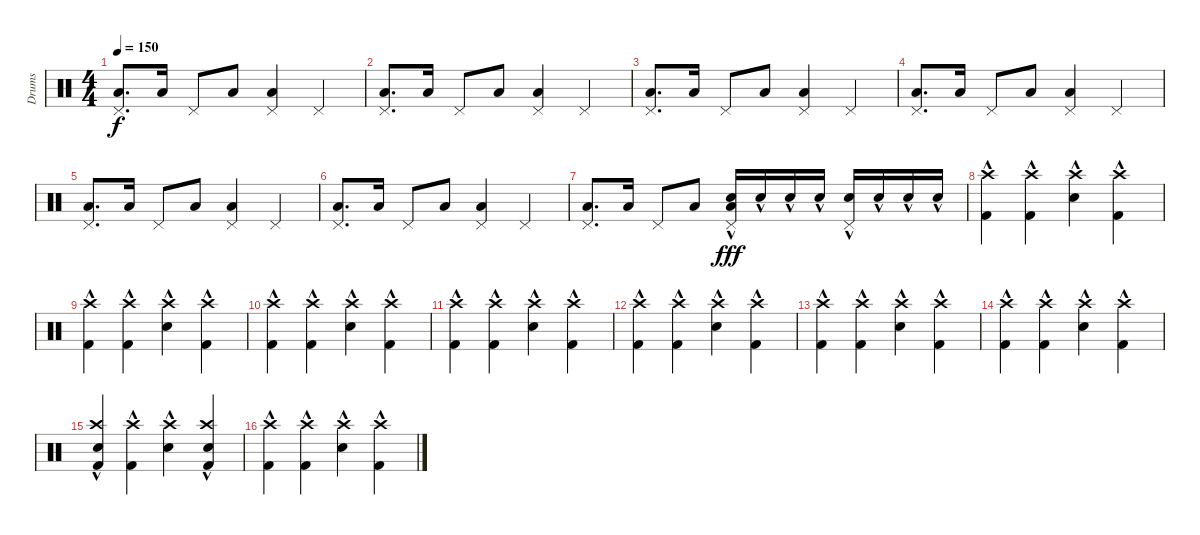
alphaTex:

\track ("Drums" "Drums") {instrument percussion}
\staff {score}
\articulation defaults
\ts (4 4)
\tempo 150
\clef neutral
\ks c
("Pedal Hi-Hat (hit)" "Low Floor Tom (hit)").8{d dy f} "Low Floor Tom (hit)".16 "Pedal Hi-Hat (hit)".8 "Low Floor Tom (hit)".8 ("Pedal Hi-Hat (hit)" "Low Floor Tom (hit)").4 "Pedal Hi-Hat (hit)".4 |
("Pedal Hi-Hat (hit)" "Low Floor Tom (hit)").8{d} "Low Floor Tom (hit)".16 "Pedal Hi-Hat (hit)".8 "Low Floor Tom (hit)".8 ("Pedal Hi-Hat (hit)" "Low Floor Tom (hit)").4 "Pedal Hi-Hat (hit)".4 |
("Pedal Hi-Hat (hit)" "Low Floor Tom (hit)").8{d} "Low Floor Tom (hit)".16 "Pedal Hi-Hat (hit)".8 "Low Floor Tom (hit)".8 ("Pedal Hi-Hat (hit)" "Low Floor Tom (hit)").4 "Pedal Hi-Hat (hit)".4 |
("Pedal Hi-Hat (hit)" "Low Floor Tom (hit)").8{d} "Low Floor Tom (hit)".16 "Pedal Hi-Hat (hit)".8 "Low Floor Tom (hit)".8 ("Pedal Hi-Hat (hit)" "Low Floor Tom (hit)").4 "Pedal Hi-Hat (hit)".4 |
("Pedal Hi-Hat (hit)" "Low Floor Tom (hit)").8{d} "Low Floor Tom (hit)".16 "Pedal Hi-Hat (hit)".8 "Low Floor Tom (hit)".8 ("Pedal Hi-Hat (hit)" "Low Floor Tom (hit)").4 "Pedal Hi-Hat (hit)".4 |
("Pedal Hi-Hat (hit)" "Low Floor Tom (hit)").8{d} "Low Floor Tom (hit)".16 "Pedal Hi-Hat (hit)".8 "Low Floor Tom (hit)".8 ("Pedal Hi-Hat (hit)" "Low Floor Tom (hit)").4 "Pedal Hi-Hat (hit)".4 |
("Pedal Hi-Hat (hit)" "Low Floor Tom (hit)").8{d} "Low Floor Tom (hit)".16 "Pedal Hi-Hat (hit)".8 "Low Floor Tom (hit)".8 ("Pedal Hi-Hat (hit)" "Electric Snare (hit)"{hac} "Low Floor Tom (hit)").16{dy fff} "Electric Snare (hit)"{hac}.16 "Electric Snare (hit)"{hac}.16 "Electric Snare (hit)"{hac}.16 ("Pedal Hi-Hat (hit)" "Electric Snare (hit)"{hac}).16 "Electric Snare (hit)"{hac}.16 "Electric Snare (hit)"{hac}.16 "Electric Snare (hit)"{hac}.16 |
("Crash high (hit)" "Kick (hit) 2"{hac}).4 ("Crash high (hit)" "Kick (hit) 2"{hac}).4 ("Crash high (hit)" "Electric Snare (hit)"{hac}).4 ("Crash high (hit)" "Kick (hit) 2"{hac}).4 |
("Crash high (hit)" "Kick (hit) 2"{hac}).4 ("Crash high (hit)" "Kick (hit) 2"{hac}).4 ("Crash high (hit)" "Electric Snare (hit)"{hac}).4 ("Crash high (hit)" "Kick (hit) 2"{hac}).4 |
("Crash high (hit)" "Kick (hit) 2"{hac}).4 ("Crash high (hit)" "Kick (hit) 2"{hac}).4 ("Crash high (hit)" "Electric Snare (hit)"{hac}).4 ("Crash high (hit)" "Kick (hit) 2"{hac}).4 |
("Crash high (hit)" "Kick (hit) 2"{hac}).4 ("Crash high (hit)" "Kick (hit) 2"{hac}).4 ("Crash high (hit)" "Electric Snare (hit)"{hac}).4 ("Crash high (hit)" "Kick (hit) 2"{hac}).4 |
("Crash high (hit)" "Kick (hit) 2"{hac}).4 ("Crash high (hit)" "Kick (hit) 2"{hac}).4 ("Crash high (hit)" "Electric Snare (hit)"{hac}).4 ("Crash high (hit)" "Kick (hit) 2"{hac}).4 |
("Crash high (hit)" "Kick (hit) 2"{hac}).4 ("Crash high (hit)" "Kick (hit) 2"{hac}).4 ("Crash high (hit)" "Electric Snare (hit)"{hac}).4 ("Crash high (hit)" "Kick (hit) 2"{hac}).4 |
("Crash high (hit)" "Kick (hit) 2"{hac}).4 ("Crash high (hit)" "Kick (hit) 2"{hac}).4 ("Crash high (hit)" "Electric Snare (hit)"{hac}).4 ("Crash high (hit)" "Kick (hit) 2"{hac}).4 |
("Crash high (hit)" "Electric Snare (hit)" "Kick (hit) 2"{hac}).4 ("Crash high (hit)" "Kick (hit) 2"{hac}).4 ("Crash high (hit)" "Electric Snare (hit)"{hac}).4 ("Crash high (hit)" "Electric Snare (hit)" "Kick (hit) 2"{hac}).4 |
("Crash high (hit)" "Kick (hit) 2"{hac}).4 ("Crash high (hit)" "Kick (hit) 2"{hac}).4 ("Crash high (hit)" "Electric Snare (hit)"{hac}).4 ("Crash high (hit)" "Kick (hit) 2"{hac}).4
